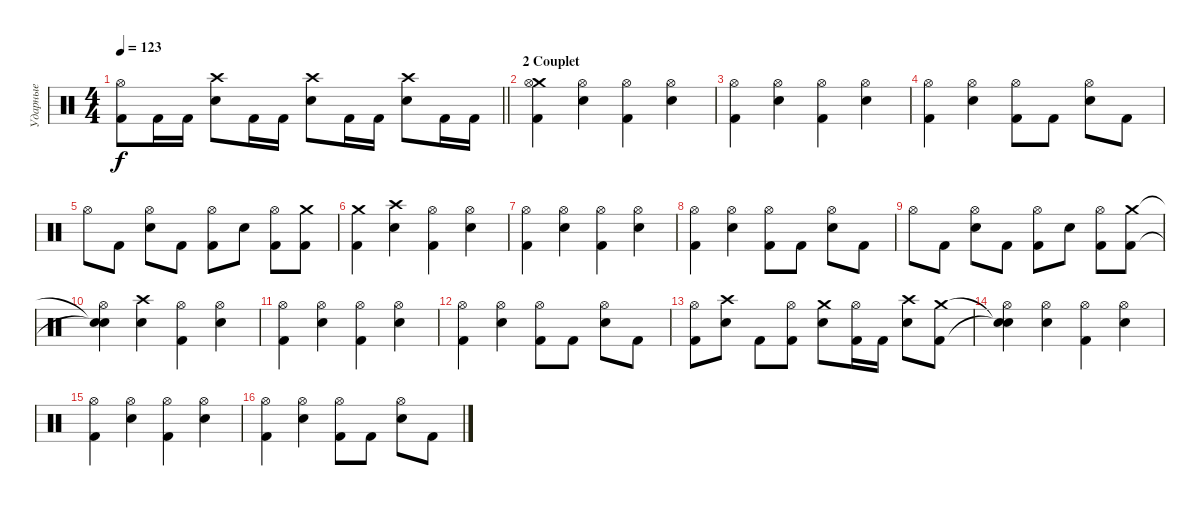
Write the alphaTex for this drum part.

\track ("Ударные" "Ударные") {instrument percussion}
\staff {score}
\articulation defaults
\ts (4 4)
\tempo 123
\clef neutral
\barLineRight lightlight
\ks c
("Kick (hit) 2" "Hi-Hat (open)").8{dy f} "Kick (hit) 2".16 "Kick (hit) 2".16 ("Crash high (hit)" "Snare (hit) 2").8 "Kick (hit) 2".16 "Kick (hit) 2".16 ("Crash high (hit)" "Snare (hit) 2").8 "Kick (hit) 2".16 "Kick (hit) 2".16 ("Crash high (hit)" "Snare (hit) 2").8 "Kick (hit) 2".16 "Kick (hit) 2".16 |
\section ("" "2 Couplet")
("Crash medium (hit)" "Kick (hit) 2" "Hi-Hat (open)").4 ("Snare (hit) 2" "Hi-Hat (open)").4 ("Kick (hit) 2" "Hi-Hat (open)").4 ("Snare (hit) 2" "Hi-Hat (open)").4 |
("Kick (hit) 2" "Hi-Hat (open)").4 ("Snare (hit) 2" "Hi-Hat (open)").4 ("Kick (hit) 2" "Hi-Hat (open)").4 ("Snare (hit) 2" "Hi-Hat (open)").4 |
("Kick (hit) 2" "Hi-Hat (open)").4 ("Snare (hit) 2" "Hi-Hat (open)").4 ("Kick (hit) 2" "Hi-Hat (open)").8 "Kick (hit) 2".8 ("Snare (hit) 2" "Hi-Hat (open)").8 "Kick (hit) 2".8 |
"Hi-Hat (open)".8 "Kick (hit) 2".8 ("Snare (hit) 2" "Hi-Hat (open)").8 "Kick (hit) 2".8 ("Kick (hit) 2" "Hi-Hat (open)").8 "Snare (hit) 2".8 ("Kick (hit) 2" "Hi-Hat (open)").8 ("Crash medium (hit)" "Kick (hit) 2").8 |
("Crash medium (hit)" "Kick (hit) 2").4 ("Crash high (hit)" "Snare (hit) 2").4 ("Kick (hit) 2" "Hi-Hat (open)").4 ("Snare (hit) 2" "Hi-Hat (open)").4 |
("Kick (hit) 2" "Hi-Hat (open)").4 ("Snare (hit) 2" "Hi-Hat (open)").4 ("Kick (hit) 2" "Hi-Hat (open)").4 ("Snare (hit) 2" "Hi-Hat (open)").4 |
("Kick (hit) 2" "Hi-Hat (open)").4 ("Snare (hit) 2" "Hi-Hat (open)").4 ("Kick (hit) 2" "Hi-Hat (open)").8 "Kick (hit) 2".8 ("Snare (hit) 2" "Hi-Hat (open)").8 "Kick (hit) 2".8 |
"Hi-Hat (open)".8 "Kick (hit) 2".8 ("Snare (hit) 2" "Hi-Hat (open)").8 "Kick (hit) 2".8 ("Kick (hit) 2" "Hi-Hat (open)").8 "Snare (hit) 2".8 ("Kick (hit) 2" "Hi-Hat (open)").8 ("Crash medium (hit)" "Kick (hit) 2").8 |
("Snare (hit)"{t} "Snare (hit)"{t} "Hi-Hat (open)").4 ("Crash high (hit)" "Snare (hit) 2").4 ("Kick (hit) 2" "Hi-Hat (open)").4 ("Snare (hit) 2" "Hi-Hat (open)").4 |
("Kick (hit) 2" "Hi-Hat (open)").4 ("Snare (hit) 2" "Hi-Hat (open)").4 ("Kick (hit) 2" "Hi-Hat (open)").4 ("Snare (hit) 2" "Hi-Hat (open)").4 |
("Kick (hit) 2" "Hi-Hat (open)").4 ("Snare (hit) 2" "Hi-Hat (open)").4 ("Kick (hit) 2" "Hi-Hat (open)").8 "Kick (hit) 2".8 ("Snare (hit) 2" "Hi-Hat (open)").8 "Kick (hit) 2".8 |
("Kick (hit) 2" "Hi-Hat (open)").8 ("Crash high (hit)" "Snare (hit) 2").8 "Kick (hit) 2".8 ("Kick (hit) 2" "Hi-Hat (open)").8 ("Crash medium (hit)" "Snare (hit) 2").8 ("Kick (hit) 2" "Hi-Hat (open)").16 "Kick (hit) 2".16 ("Crash high (hit)" "Snare (hit) 2").8 ("Crash medium (hit)" "Kick (hit) 2").8 |
("Snare (hit)"{t} "Snare (hit)"{t} "Hi-Hat (open)").4 ("Snare (hit) 2" "Hi-Hat (open)").4 ("Kick (hit) 2" "Hi-Hat (open)").4 ("Snare (hit) 2" "Hi-Hat (open)").4 |
("Kick (hit) 2" "Hi-Hat (open)").4 ("Snare (hit) 2" "Hi-Hat (open)").4 ("Kick (hit) 2" "Hi-Hat (open)").4 ("Snare (hit) 2" "Hi-Hat (open)").4 |
("Kick (hit) 2" "Hi-Hat (open)").4 ("Snare (hit) 2" "Hi-Hat (open)").4 ("Kick (hit) 2" "Hi-Hat (open)").8 "Kick (hit) 2".8 ("Snare (hit) 2" "Hi-Hat (open)").8 "Kick (hit) 2".8
